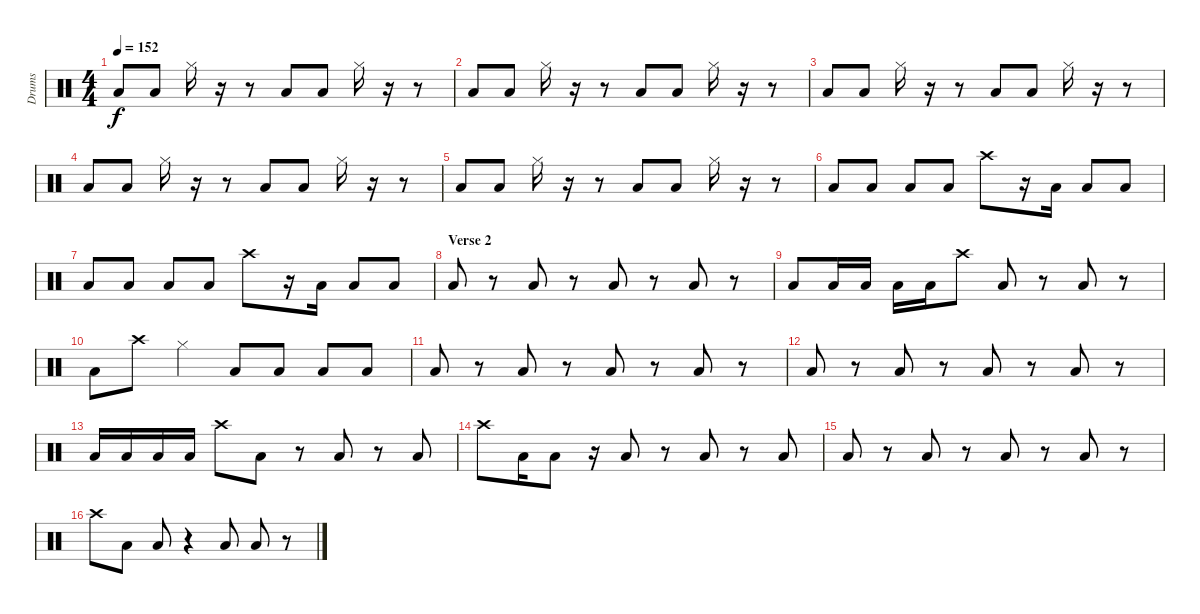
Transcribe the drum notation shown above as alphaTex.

\track ("Drums" "Drums") {instrument percussion}
\staff {score}
\articulation defaults
\ts (4 4)
\tempo 152
\clef neutral
\ks c "Low Tom (hit)".8{dy f} "Low Tom (hit)".8 "Hi-Hat (closed)".16
r.16 r.8 "Low Tom (hit)".8 "Low Tom (hit)".8 "Hi-Hat (closed)".16 r.16 r.8 |
"Low Tom (hit)".8 "Low Tom (hit)".8 "Hi-Hat (closed)".16 r.16 r.8 "Low Tom (hit)".8 "Low Tom (hit)".8 "Hi-Hat (closed)".16 r.16 r.8 |
"Low Tom (hit)".8 "Low Tom (hit)".8 "Hi-Hat (closed)".16 r.16 r.8 "Low Tom (hit)".8 "Low Tom (hit)".8 "Hi-Hat (closed)".16 r.16 r.8 |
"Low Tom (hit)".8 "Low Tom (hit)".8 "Hi-Hat (closed)".16 r.16 r.8 "Low Tom (hit)".8 "Low Tom (hit)".8 "Hi-Hat (closed)".16 r.16 r.8 |
"Low Tom (hit)".8 "Low Tom (hit)".8 "Hi-Hat (closed)".16 r.16 r.8 "Low Tom (hit)".8 "Low Tom (hit)".8 "Hi-Hat (closed)".16 r.16 r.8 |
"Low Tom (hit)".8 "Low Tom (hit)".8 "Low Tom (hit)".8 "Low Tom (hit)".8 "Crash high (hit)".8 r.16 "Low Tom (hit)".16 "Low Tom (hit)".8 "Low Tom (hit)".8 |
"Low Tom (hit)".8 "Low Tom (hit)".8 "Low Tom (hit)".8 "Low Tom (hit)".8 "Crash high (hit)".8 r.16 "Low Tom (hit)".16 "Low Tom (hit)".8 "Low Tom (hit)".8 |
\section ("" "Verse 2")
"Low Tom (hit)".8 r.8 "Low Tom (hit)".8 r.8 "Low Tom (hit)".8 r.8 "Low Tom (hit)".8 r.8 |
"Low Tom (hit)".8 "Low Tom (hit)".16 "Low Tom (hit)".16 "Low Tom (hit)".16 "Low Tom (hit)".16 "Crash high (hit)".8 "Low Tom (hit)".8 r.8 "Low Tom (hit)".8 r.8 |
"Low Tom (hit)".8 "Crash high (hit)".8 "Hi-Hat (closed)".4 "Low Tom (hit)".8 "Low Tom (hit)".8 "Low Tom (hit)".8 "Low Tom (hit)".8 |
"Low Tom (hit)".8 r.8 "Low Tom (hit)".8 r.8 "Low Tom (hit)".8 r.8 "Low Tom (hit)".8 r.8 |
"Low Tom (hit)".8 r.8 "Low Tom (hit)".8 r.8 "Low Tom (hit)".8 r.8 "Low Tom (hit)".8 r.8 |
"Low Tom (hit)".16 "Low Tom (hit)".16 "Low Tom (hit)".16 "Low Tom (hit)".16 "Crash high (hit)".8 "Low Tom (hit)".8 r.8 "Low Tom (hit)".8 r.8 "Low Tom (hit)".8 |
"Crash high (hit)".8 "Low Tom (hit)".16 "Low Tom (hit)".8 r.16 "Low Tom (hit)".8 r.8 "Low Tom (hit)".8 r.8 "Low Tom (hit)".8 |
"Low Tom (hit)".8 r.8 "Low Tom (hit)".8 r.8 "Low Tom (hit)".8 r.8 "Low Tom (hit)".8 r.8 |
"Crash high (hit)".8 "Low Tom (hit)".8 "Low Tom (hit)".8 r.4 "Low Tom (hit)".8 "Low Tom (hit)".8 r.8
